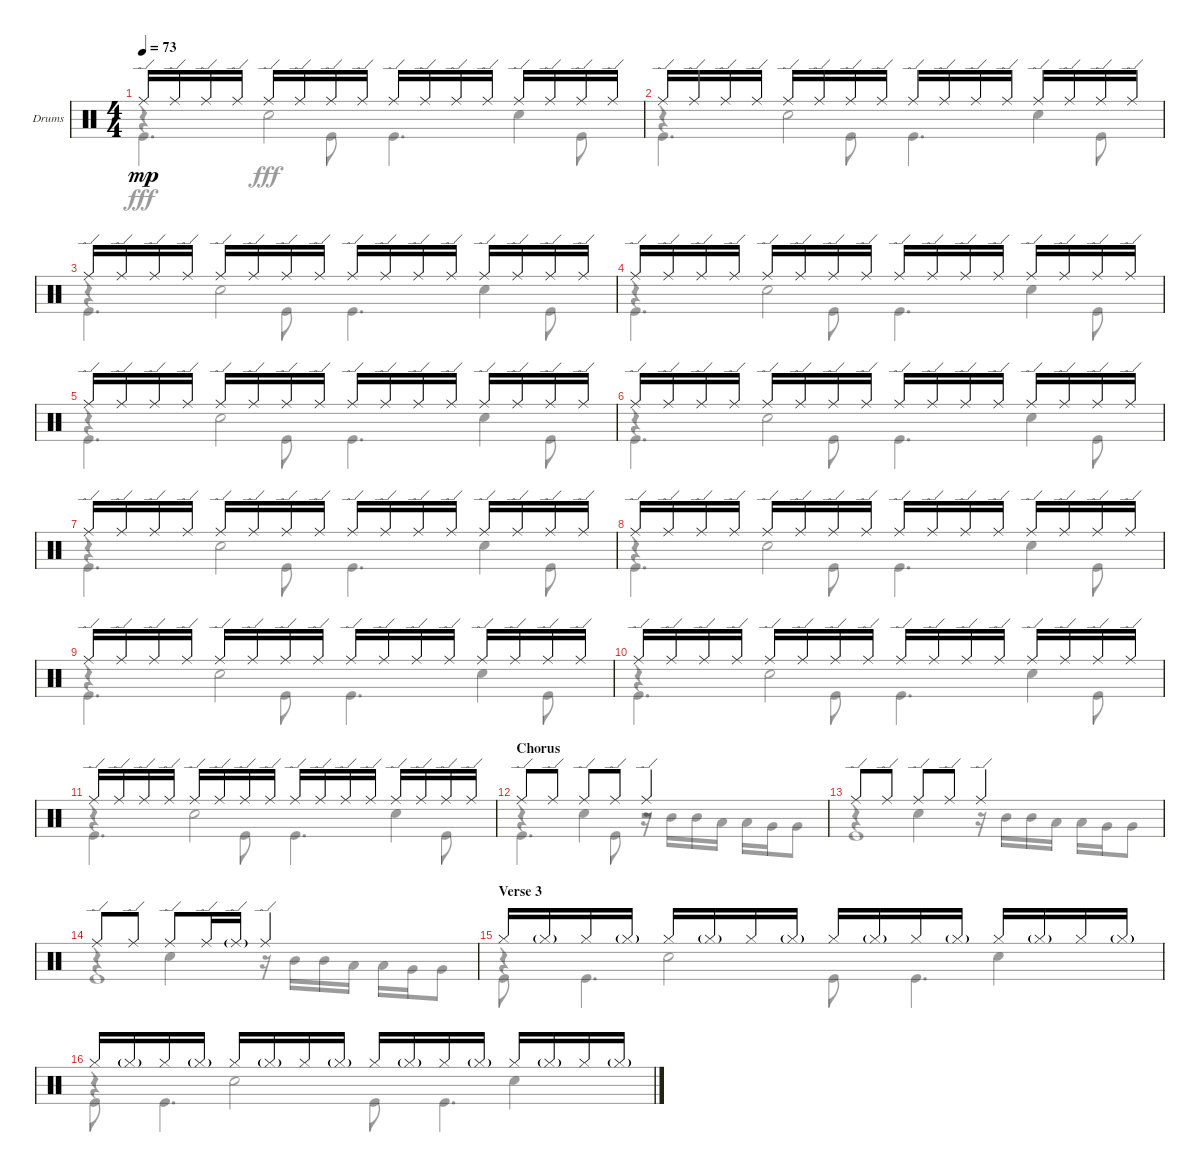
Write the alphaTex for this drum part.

\defaultSystemsLayout 4
\bracketExtendMode groupsimilarinstruments
\firstSystemTrackNameOrientation horizontal
\otherSystemsTrackNameOrientation horizontal
\track ("Drumkit" "Drums") {instrument percussion}
\staff {score}
\articulation defaults
\voice
\ts (4 4)
\tempo 73
\clef neutral
\ks c "Ride (edge)".16{dy mp} "Ride (edge)".16 "Ride (edge)".16 "Ride (edge)".16 "Ride (edge)".16 "Ride (edge)".16 "Ride (edge)".16 "Ride (edge)".16 "Ride (edge)".16 "Ride (edge)".16 "Ride (edge)".16 "Ride (edge)".16 "Ride (edge)".16 "Ride (edge)".16 "Ride (edge)".16 "Ride (edge)".16
|
"Ride (edge)".16 "Ride (edge)".16 "Ride (edge)".16 "Ride (edge)".16 "Ride (edge)".16 "Ride (edge)".16 "Ride (edge)".16 "Ride (edge)".16 "Ride (edge)".16 "Ride (edge)".16 "Ride (edge)".16 "Ride (edge)".16 "Ride (edge)".16 "Ride (edge)".16 "Ride (edge)".16 "Ride (edge)".16 |
"Ride (edge)".16 "Ride (edge)".16 "Ride (edge)".16 "Ride (edge)".16 "Ride (edge)".16 "Ride (edge)".16 "Ride (edge)".16 "Ride (edge)".16 "Ride (edge)".16 "Ride (edge)".16 "Ride (edge)".16 "Ride (edge)".16 "Ride (edge)".16 "Ride (edge)".16 "Ride (edge)".16 "Ride (edge)".16 |
"Ride (edge)".16 "Ride (edge)".16 "Ride (edge)".16 "Ride (edge)".16 "Ride (edge)".16 "Ride (edge)".16 "Ride (edge)".16 "Ride (edge)".16 "Ride (edge)".16 "Ride (edge)".16 "Ride (edge)".16 "Ride (edge)".16 "Ride (edge)".16 "Ride (edge)".16 "Ride (edge)".16 "Ride (edge)".16 |
"Ride (edge)".16 "Ride (edge)".16 "Ride (edge)".16 "Ride (edge)".16 "Ride (edge)".16 "Ride (edge)".16 "Ride (edge)".16 "Ride (edge)".16 "Ride (edge)".16 "Ride (edge)".16 "Ride (edge)".16 "Ride (edge)".16 "Ride (edge)".16 "Ride (edge)".16 "Ride (edge)".16 "Ride (edge)".16 |
"Ride (edge)".16 "Ride (edge)".16 "Ride (edge)".16 "Ride (edge)".16 "Ride (edge)".16 "Ride (edge)".16 "Ride (edge)".16 "Ride (edge)".16 "Ride (edge)".16 "Ride (edge)".16 "Ride (edge)".16 "Ride (edge)".16 "Ride (edge)".16 "Ride (edge)".16 "Ride (edge)".16 "Ride (edge)".16 |
"Ride (edge)".16 "Ride (edge)".16 "Ride (edge)".16 "Ride (edge)".16 "Ride (edge)".16 "Ride (edge)".16 "Ride (edge)".16 "Ride (edge)".16 "Ride (edge)".16 "Ride (edge)".16 "Ride (edge)".16 "Ride (edge)".16 "Ride (edge)".16 "Ride (edge)".16 "Ride (edge)".16 "Ride (edge)".16 |
"Ride (edge)".16 "Ride (edge)".16 "Ride (edge)".16 "Ride (edge)".16 "Ride (edge)".16 "Ride (edge)".16 "Ride (edge)".16 "Ride (edge)".16 "Ride (edge)".16 "Ride (edge)".16 "Ride (edge)".16 "Ride (edge)".16 "Ride (edge)".16 "Ride (edge)".16 "Ride (edge)".16 "Ride (edge)".16 |
"Ride (edge)".16 "Ride (edge)".16 "Ride (edge)".16 "Ride (edge)".16 "Ride (edge)".16 "Ride (edge)".16 "Ride (edge)".16 "Ride (edge)".16 "Ride (edge)".16 "Ride (edge)".16 "Ride (edge)".16 "Ride (edge)".16 "Ride (edge)".16 "Ride (edge)".16 "Ride (edge)".16 "Ride (edge)".16 |
"Ride (edge)".16 "Ride (edge)".16 "Ride (edge)".16 "Ride (edge)".16 "Ride (edge)".16 "Ride (edge)".16 "Ride (edge)".16 "Ride (edge)".16 "Ride (edge)".16 "Ride (edge)".16 "Ride (edge)".16 "Ride (edge)".16 "Ride (edge)".16 "Ride (edge)".16 "Ride (edge)".16 "Ride (edge)".16 |
"Ride (edge)".16 "Ride (edge)".16 "Ride (edge)".16 "Ride (edge)".16 "Ride (edge)".16 "Ride (edge)".16 "Ride (edge)".16 "Ride (edge)".16 "Ride (edge)".16 "Ride (edge)".16 "Ride (edge)".16 "Ride (edge)".16 "Ride (edge)".16 "Ride (edge)".16 "Ride (edge)".16 "Ride (edge)".16 |
\section ("" "Chorus")
"Ride (edge)".8 "Ride (edge)".8 "Ride (edge)".8 "Ride (edge)".8 "Ride (edge)".2 |
"Ride (edge)".8 "Ride (edge)".8 "Ride (edge)".8 "Ride (edge)".8 "Ride (edge)".2 |
"Ride (edge)".8 "Ride (edge)".8 "Ride (edge)".8 "Ride (edge)".16 "Ride (edge)"{g}.16 "Ride (edge)".2 |
\section ("" "Verse 3")
"Hi-Hat (closed)".16 "Hi-Hat (closed)"{g}.16 "Hi-Hat (closed)".16 "Hi-Hat (closed)"{g}.16 "Hi-Hat (closed)".16 "Hi-Hat (closed)"{g}.16 "Hi-Hat (closed)".16 "Hi-Hat (closed)"{g}.16 "Hi-Hat (closed)".16 "Hi-Hat (closed)"{g}.16 "Hi-Hat (closed)".16 "Hi-Hat (closed)"{g}.16 "Hi-Hat (closed)".16 "Hi-Hat (closed)"{g}.16 "Hi-Hat (closed)".16 "Hi-Hat (closed)"{g}.16 |
"Hi-Hat (closed)".16 "Hi-Hat (closed)"{g}.16 "Hi-Hat (closed)".16 "Hi-Hat (closed)"{g}.16 "Hi-Hat (closed)".16 "Hi-Hat (closed)"{g}.16 "Hi-Hat (closed)".16 "Hi-Hat (closed)"{g}.16 "Hi-Hat (closed)".16 "Hi-Hat (closed)"{g}.16 "Hi-Hat (closed)".16 "Hi-Hat (closed)"{g}.16 "Hi-Hat (closed)".16 "Hi-Hat (closed)"{g}.16 "Hi-Hat (closed)".16 "Hi-Hat (closed)"{g}.16
\voice
\clef neutral
\ottava regular
\simile none
\ks c
r.4{dy fff} "Snare (hit) 2".2 "Snare (hit) 2".4 |
r.4 "Snare (hit) 2".2 "Snare (hit) 2".4 |
r.4 "Snare (hit) 2".2 "Snare (hit) 2".4 |
r.4 "Snare (hit) 2".2 "Snare (hit) 2".4 |
r.4 "Snare (hit) 2".2 "Snare (hit) 2".4 |
r.4 "Snare (hit) 2".2 "Snare (hit) 2".4 |
r.4 "Snare (hit) 2".2 "Snare (hit) 2".4 |
r.4 "Snare (hit) 2".2 "Snare (hit) 2".4 |
r.4 "Snare (hit) 2".2 "Snare (hit) 2".4 |
r.4 "Snare (hit) 2".2 "Snare (hit) 2".4 |
r.4 "Snare (hit) 2".2 "Snare (hit) 2".4 |
r.4 "Snare (hit) 2".4 r.16 "Mid Tom (hit)".16 "Mid Tom (hit)".16 "Low Tom (hit)".16 "Low Tom (hit)".16 "Very Low Tom (hit)".16 "Very Low Tom (hit)".8 |
r.4 "Snare (hit) 2".4 r.16 "Mid Tom (hit)".16 "Mid Tom (hit)".16 "Low Tom (hit)".16 "Low Tom (hit)".16 "Very Low Tom (hit)".16 "Very Low Tom (hit)".8 |
r.4 "Snare (hit) 2".4 r.16 "Mid Tom (hit)".16 "Mid Tom (hit)".16 "Low Tom (hit)".16 "Low Tom (hit)".16 "Very Low Tom (hit)".16 "Very Low Tom (hit)".8 |
r.4 "Snare (hit) 2".2 "Snare (hit) 2".4 |
r.4 "Snare (hit) 2".2 "Snare (hit) 2".4
\voice
\clef neutral
\ottava regular
\simile none
\ks c "Kick (hit)".4{d dy fff} "Kick (hit)".8 "Kick (hit)".4{d} "Kick (hit)".8
|
"Kick (hit)".4{d} "Kick (hit)".8 "Kick (hit)".4{d} "Kick (hit)".8 |
"Kick (hit)".4{d} "Kick (hit)".8 "Kick (hit)".4{d} "Kick (hit)".8 |
"Kick (hit)".4{d} "Kick (hit)".8 "Kick (hit)".4{d} "Kick (hit)".8 |
"Kick (hit)".4{d} "Kick (hit)".8 "Kick (hit)".4{d} "Kick (hit)".8 |
"Kick (hit)".4{d} "Kick (hit)".8 "Kick (hit)".4{d} "Kick (hit)".8 |
"Kick (hit)".4{d} "Kick (hit)".8 "Kick (hit)".4{d} "Kick (hit)".8 |
"Kick (hit)".4{d} "Kick (hit)".8 "Kick (hit)".4{d} "Kick (hit)".8 |
"Kick (hit)".4{d} "Kick (hit)".8 "Kick (hit)".4{d} "Kick (hit)".8 |
"Kick (hit)".4{d} "Kick (hit)".8 "Kick (hit)".4{d} "Kick (hit)".8 |
"Kick (hit)".4{d} "Kick (hit)".8 "Kick (hit)".4{d} "Kick (hit)".8 |
"Kick (hit)".4{d} "Kick (hit)".8 r.2 |
"Kick (hit)".1 |
"Kick (hit)".1 |
"Kick (hit)".8 "Kick (hit)".4{d} "Kick (hit)".8 "Kick (hit)".4{d} |
"Kick (hit)".8 "Kick (hit)".4{d} "Kick (hit)".8 "Kick (hit)".4{d}
